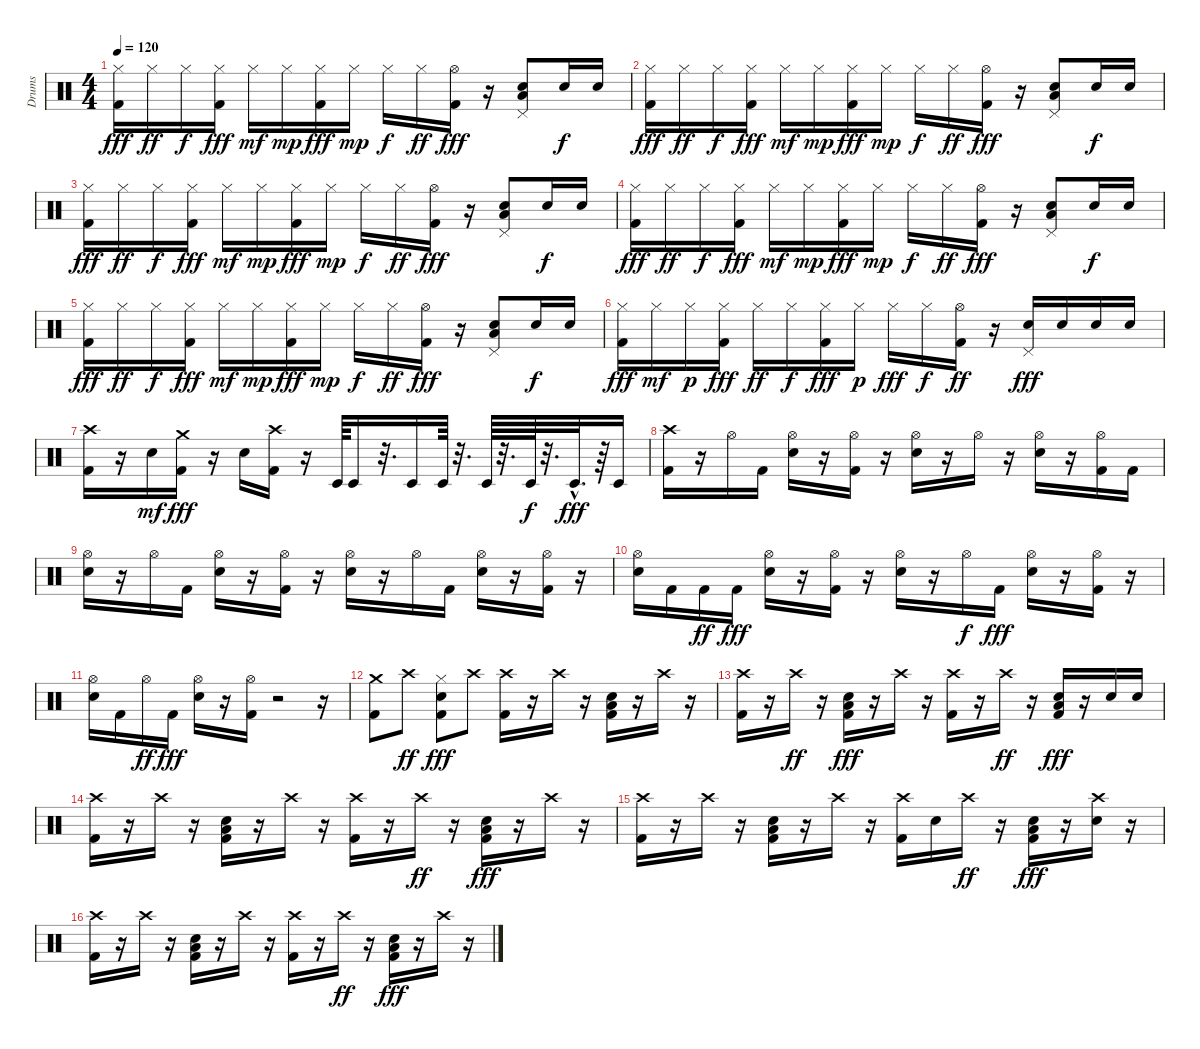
\track ("Drums" "Drums") {instrument percussion}
\staff {score}
\articulation defaults
\ts (4 4)
\tempo 120
\clef neutral
\ks c
("Kick (hit) 2" "Hi-Hat (closed)").16{dy fff} "Hi-Hat (closed)".16{dy ff} "Hi-Hat (closed)".16{dy f} ("Hi-Hat (closed)" "Kick (hit) 2").16{dy fff} "Hi-Hat (closed)".16{dy mf} "Hi-Hat (closed)".16{dy mp} ("Hi-Hat (closed)" "Kick (hit) 2").16{dy fff} "Hi-Hat (closed)".16{dy mp} "Hi-Hat (closed)".16{dy f} "Hi-Hat (closed)".16{dy ff} ("Kick (hit) 2" "Hi-Hat (open)").16{dy fff} r.16 ("Snare (hit) 2" "Low Floor Tom (hit)" "Pedal Hi-Hat (hit)").8 "Snare (hit) 2".16{dy f} "Snare (hit) 2".16 |
("Kick (hit) 2" "Hi-Hat (closed)").16{dy fff} "Hi-Hat (closed)".16{dy ff} "Hi-Hat (closed)".16{dy f} ("Hi-Hat (closed)" "Kick (hit) 2").16{dy fff} "Hi-Hat (closed)".16{dy mf} "Hi-Hat (closed)".16{dy mp} ("Hi-Hat (closed)" "Kick (hit) 2").16{dy fff} "Hi-Hat (closed)".16{dy mp} "Hi-Hat (closed)".16{dy f} "Hi-Hat (closed)".16{dy ff} ("Kick (hit) 2" "Hi-Hat (open)").16{dy fff} r.16 ("Snare (hit) 2" "Low Floor Tom (hit)" "Pedal Hi-Hat (hit)").8 "Snare (hit) 2".16{dy f} "Snare (hit) 2".16 |
("Kick (hit) 2" "Hi-Hat (closed)").16{dy fff} "Hi-Hat (closed)".16{dy ff} "Hi-Hat (closed)".16{dy f} ("Hi-Hat (closed)" "Kick (hit) 2").16{dy fff} "Hi-Hat (closed)".16{dy mf} "Hi-Hat (closed)".16{dy mp} ("Hi-Hat (closed)" "Kick (hit) 2").16{dy fff} "Hi-Hat (closed)".16{dy mp} "Hi-Hat (closed)".16{dy f} "Hi-Hat (closed)".16{dy ff} ("Kick (hit) 2" "Hi-Hat (open)").16{dy fff} r.16 ("Snare (hit) 2" "Low Floor Tom (hit)" "Pedal Hi-Hat (hit)").8 "Snare (hit) 2".16{dy f} "Snare (hit) 2".16 |
("Kick (hit) 2" "Hi-Hat (closed)").16{dy fff} "Hi-Hat (closed)".16{dy ff} "Hi-Hat (closed)".16{dy f} ("Hi-Hat (closed)" "Kick (hit) 2").16{dy fff} "Hi-Hat (closed)".16{dy mf} "Hi-Hat (closed)".16{dy mp} ("Hi-Hat (closed)" "Kick (hit) 2").16{dy fff} "Hi-Hat (closed)".16{dy mp} "Hi-Hat (closed)".16{dy f} "Hi-Hat (closed)".16{dy ff} ("Kick (hit) 2" "Hi-Hat (open)").16{dy fff} r.16 ("Snare (hit) 2" "Low Floor Tom (hit)" "Pedal Hi-Hat (hit)").8 "Snare (hit) 2".16{dy f} "Snare (hit) 2".16 |
("Kick (hit) 2" "Hi-Hat (closed)").16{dy fff} "Hi-Hat (closed)".16{dy ff} "Hi-Hat (closed)".16{dy f} ("Hi-Hat (closed)" "Kick (hit) 2").16{dy fff} "Hi-Hat (closed)".16{dy mf} "Hi-Hat (closed)".16{dy mp} ("Hi-Hat (closed)" "Kick (hit) 2").16{dy fff} "Hi-Hat (closed)".16{dy mp} "Hi-Hat (closed)".16{dy f} "Hi-Hat (closed)".16{dy ff} ("Kick (hit) 2" "Hi-Hat (open)").16{dy fff} r.16 ("Snare (hit) 2" "Low Floor Tom (hit)" "Pedal Hi-Hat (hit)").8 "Snare (hit) 2".16{dy f} "Snare (hit) 2".16 |
("Hi-Hat (closed)" "Kick (hit) 2").16{dy fff} "Hi-Hat (closed)".16{dy mf} "Hi-Hat (closed)".16{dy p} ("Hi-Hat (closed)" "Kick (hit) 2").16{dy fff} "Hi-Hat (closed)".16{dy ff} "Hi-Hat (closed)".16{dy f} ("Kick (hit) 2" "Hi-Hat (closed)").16{dy fff} "Hi-Hat (closed)".16{dy p} "Hi-Hat (closed)".16{dy fff} "Hi-Hat (closed)".16{dy f} ("Hi-Hat (open)" "Kick (hit) 2").16{dy ff} r.16 ("Snare (hit) 2" "Pedal Hi-Hat (hit)").16{dy fff} "Snare (hit) 2".16 "Snare (hit) 2".16 "Snare (hit) 2".16 |
("Crash high (hit)" "Kick (hit) 2").16 r.16 "Snare (hit) 2".16{dy mf} ("Crash medium (hit)" "Kick (hit) 2").16{dy fff} r.16 "Snare (hit) 2".16 ("Kick (hit) 2" "Crash high (hit)").16 r.16 "Timbale low (hit)".64 "Timbale low (hit)".16 r.32{d} "Timbale low (hit)".16 "Timbale low (hit)".64 r.32{d} "Timbale low (hit)".64 r.32{d} "Timbale low (hit)".64{dy f} r.32{d} "Timbale low (hit)"{hac}.32{d dy fff} r.64 "Timbale low (hit)".16 |
("Kick (hit) 2" "Crash high (hit)").16 r.16 "Hi-Hat (open)".16 "Kick (hit) 2".16 ("Snare (hit) 2" "Hi-Hat (open)").16 r.16 ("Hi-Hat (open)" "Kick (hit) 2").16 r.16 ("Hi-Hat (open)" "Snare (hit) 2").16 r.16 "Hi-Hat (open)".16 r.16 ("Hi-Hat (open)" "Snare (hit) 2").16 r.16 ("Kick (hit) 2" "Hi-Hat (open)").16 "Kick (hit) 2".16 |
("Hi-Hat (open)" "Snare (hit) 2").16 r.16 "Hi-Hat (open)".16 "Kick (hit) 2".16 ("Hi-Hat (open)" "Snare (hit) 2").16 r.16 ("Hi-Hat (open)" "Kick (hit) 2").16 r.16 ("Snare (hit) 2" "Hi-Hat (open)").16 r.16 "Hi-Hat (open)".16 "Kick (hit) 2".16 ("Hi-Hat (open)" "Snare (hit) 2").16 r.16 ("Hi-Hat (open)" "Kick (hit) 2").16 r.16 |
("Hi-Hat (open)" "Snare (hit) 2").16 "Kick (hit) 2".16 "Kick (hit) 2".16{dy ff} "Kick (hit) 2".16{dy fff} ("Snare (hit) 2" "Hi-Hat (open)").16 r.16 ("Hi-Hat (open)" "Kick (hit) 2").16 r.16 ("Snare (hit) 2" "Hi-Hat (open)").16 r.16 "Hi-Hat (open)".16{dy f} "Kick (hit) 2".16{dy fff} ("Hi-Hat (open)" "Snare (hit) 2").16 r.16 ("Kick (hit) 2" "Hi-Hat (open)").16 r.16 |
("Hi-Hat (open)" "Snare (hit) 2").16 "Kick (hit) 2".16 "Hi-Hat (open)".16{dy ff} "Kick (hit) 2".16{dy fff} ("Snare (hit) 2" "Hi-Hat (open)").16 r.16 ("Kick (hit) 2" "Hi-Hat (open)").16 r.2 r.16 |
("Kick (hit) 2" "Crash medium (hit)").8 "Crash high (hit)".8{dy ff} ("Kick (hit) 2" "Snare (hit) 2" "Hi-Hat (closed)").8{dy fff} "Crash high (hit)".8 ("Crash high (hit)" "Kick (hit) 2").16 r.16 "Crash high (hit)".16 r.16 ("Kick (hit) 2" "Low Floor Tom (hit)" "Snare (hit) 2").16 r.16 "Crash high (hit)".16 r.16 |
("Crash high (hit)" "Kick (hit) 2").16 r.16 "Crash high (hit)".16{dy ff} r.16 ("Kick (hit) 2" "Low Floor Tom (hit)" "Snare (hit) 2").16{dy fff} r.16 "Crash high (hit)".16 r.16 ("Kick (hit) 2" "Crash high (hit)").16 r.16 "Crash high (hit)".16{dy ff} r.16 ("Kick (hit) 2" "Snare (hit) 2" "Low Floor Tom (hit)").16{dy fff} r.16 "Snare (hit) 2".16 "Snare (hit) 2".16 |
("Crash high (hit)" "Kick (hit) 2").16 r.16 "Crash high (hit)".16 r.16 ("Kick (hit) 2" "Low Floor Tom (hit)" "Snare (hit) 2").16 r.16 "Crash high (hit)".16 r.16 ("Kick (hit) 2" "Crash high (hit)").16 r.16 "Crash high (hit)".16{dy ff} r.16 ("Snare (hit) 2" "Kick (hit) 2" "Low Floor Tom (hit)").16{dy fff} r.16 "Crash high (hit)".16 r.16 |
("Kick (hit) 2" "Crash high (hit)").16 r.16 "Crash high (hit)".16 r.16 ("Kick (hit) 2" "Snare (hit) 2" "Low Floor Tom (hit)").16 r.16 "Crash high (hit)".16 r.16 ("Crash high (hit)" "Kick (hit) 2").16 "Snare (hit) 2".16 "Crash high (hit)".16{dy ff} r.16 ("Kick (hit) 2" "Snare (hit) 2" "Low Floor Tom (hit)").16{dy fff} r.16 ("Crash high (hit)" "Snare (hit) 2").16 r.16 |
("Crash high (hit)" "Kick (hit) 2").16 r.16 "Crash high (hit)".16 r.16 ("Kick (hit) 2" "Low Floor Tom (hit)" "Snare (hit) 2").16 r.16 "Crash high (hit)".16 r.16 ("Kick (hit) 2" "Crash high (hit)").16 r.16 "Crash high (hit)".16{dy ff} r.16 ("Snare (hit) 2" "Kick (hit) 2" "Low Floor Tom (hit)").16{dy fff} r.16 "Crash high (hit)".16 r.16
